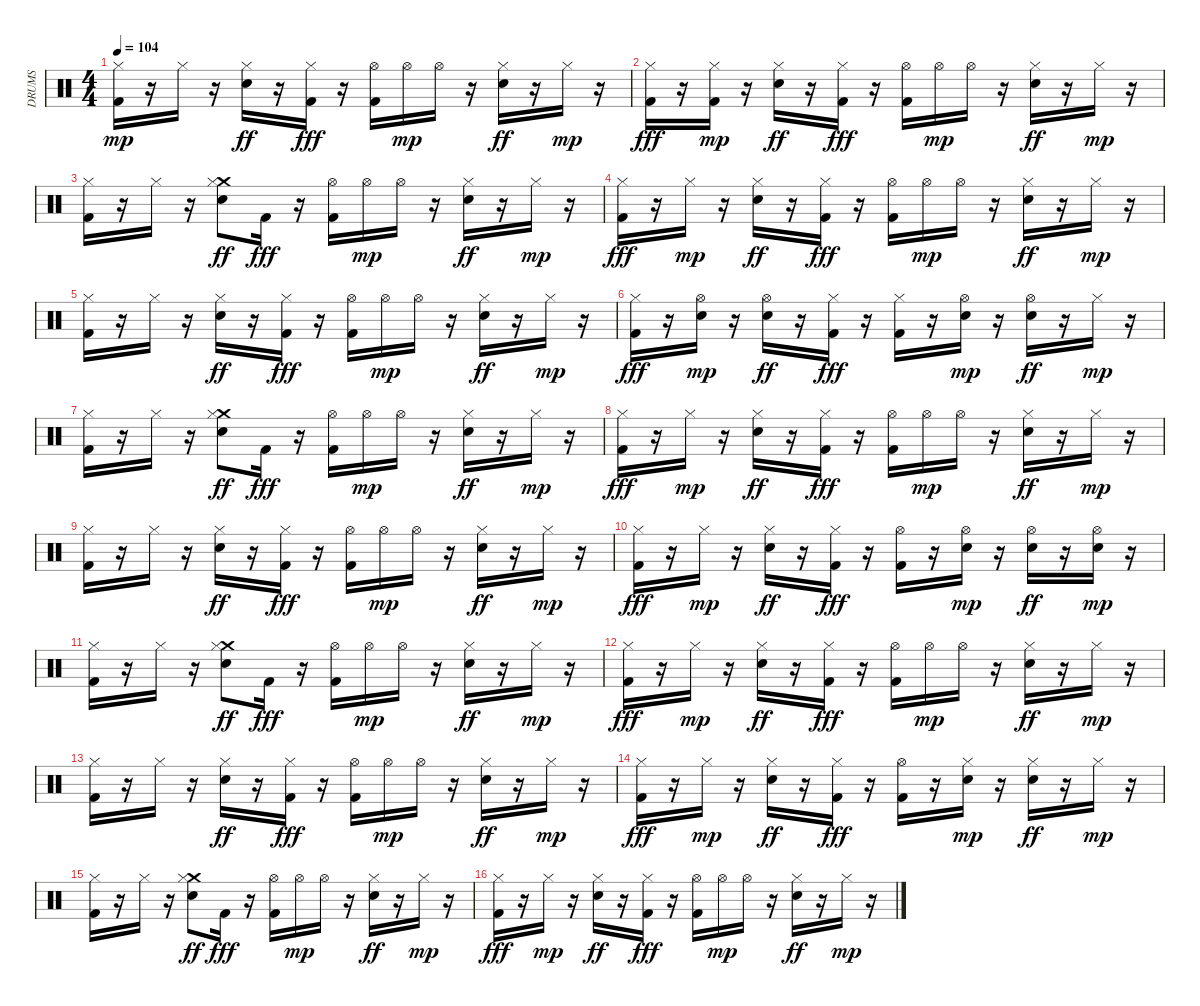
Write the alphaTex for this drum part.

\track ("DRUMS" "DRUMS") {instrument percussion}
\staff {score}
\articulation defaults
\ts (4 4)
\tempo 104
\clef neutral
\ks c
("Kick (hit) 2" "Hi-Hat (closed)").16{dy mp} r.16 "Hi-Hat (closed)".16 r.16 ("Hi-Hat (closed)" "Snare (hit) 2").16{dy ff} r.16 ("Hi-Hat (closed)" "Kick (hit) 2").16{dy fff} r.16 ("Hi-Hat (open)" "Kick (hit) 2").16 "Hi-Hat (open)".16{dy mp} "Hi-Hat (open)".16 r.16 ("Hi-Hat (closed)" "Snare (hit) 2").16{dy ff} r.16 "Hi-Hat (closed)".16{dy mp} r.16 |
("Hi-Hat (closed)" "Kick (hit) 2").16{dy fff} r.16 ("Kick (hit) 2" "Hi-Hat (closed)").16{dy mp} r.16 ("Hi-Hat (closed)" "Snare (hit) 2").16{dy ff} r.16 ("Hi-Hat (closed)" "Kick (hit) 2").16{dy fff} r.16 ("Hi-Hat (open)" "Kick (hit) 2").16 "Hi-Hat (open)".16{dy mp} "Hi-Hat (open)".16 r.16 ("Hi-Hat (closed)" "Snare (hit) 2").16{dy ff} r.16 "Hi-Hat (closed)".16{dy mp} r.16 |
("Kick (hit) 2" "Hi-Hat (closed)").16 r.16 "Hi-Hat (closed)".16 r.16 ("Crash medium (hit)" "Hi-Hat (closed)" "Snare (hit) 2").8{dy ff} "Kick (hit) 2".16{dy fff} r.16 ("Hi-Hat (open)" "Kick (hit) 2").16 "Hi-Hat (open)".16{dy mp} "Hi-Hat (open)".16 r.16 ("Hi-Hat (closed)" "Snare (hit) 2").16{dy ff} r.16 "Hi-Hat (closed)".16{dy mp} r.16 |
("Hi-Hat (closed)" "Kick (hit) 2").16{dy fff} r.16 "Hi-Hat (closed)".16{dy mp} r.16 ("Hi-Hat (closed)" "Snare (hit) 2").16{dy ff} r.16 ("Hi-Hat (closed)" "Kick (hit) 2").16{dy fff} r.16 ("Hi-Hat (open)" "Kick (hit) 2").16 "Hi-Hat (open)".16{dy mp} "Hi-Hat (open)".16 r.16 ("Hi-Hat (closed)" "Snare (hit) 2").16{dy ff} r.16 "Hi-Hat (closed)".16{dy mp} r.16 |
("Kick (hit) 2" "Hi-Hat (closed)").16 r.16 "Hi-Hat (closed)".16 r.16 ("Hi-Hat (closed)" "Snare (hit) 2").16{dy ff} r.16 ("Hi-Hat (closed)" "Kick (hit) 2").16{dy fff} r.16 ("Hi-Hat (open)" "Kick (hit) 2").16 "Hi-Hat (open)".16{dy mp} "Hi-Hat (open)".16 r.16 ("Hi-Hat (closed)" "Snare (hit) 2").16{dy ff} r.16 "Hi-Hat (closed)".16{dy mp} r.16 |
("Hi-Hat (closed)" "Kick (hit) 2").16{dy fff} r.16 ("Snare (hit) 2" "Hi-Hat (open)").16{dy mp} r.16 ("Hi-Hat (open)" "Snare (hit) 2").16{dy ff} r.16 ("Hi-Hat (closed)" "Kick (hit) 2").16{dy fff} r.16 ("Hi-Hat (closed)" "Kick (hit) 2").16 r.16 ("Snare (hit) 2" "Hi-Hat (open)").16{dy mp} r.16 ("Hi-Hat (open)" "Snare (hit) 2").16{dy ff} r.16 "Hi-Hat (closed)".16{dy mp} r.16 |
("Kick (hit) 2" "Hi-Hat (closed)").16 r.16 "Hi-Hat (closed)".16 r.16 ("Crash medium (hit)" "Hi-Hat (closed)" "Snare (hit) 2").8{dy ff} "Kick (hit) 2".16{dy fff} r.16 ("Hi-Hat (open)" "Kick (hit) 2").16 "Hi-Hat (open)".16{dy mp} "Hi-Hat (open)".16 r.16 ("Hi-Hat (closed)" "Snare (hit) 2").16{dy ff} r.16 "Hi-Hat (closed)".16{dy mp} r.16 |
("Hi-Hat (closed)" "Kick (hit) 2").16{dy fff} r.16 "Hi-Hat (closed)".16{dy mp} r.16 ("Hi-Hat (closed)" "Snare (hit) 2").16{dy ff} r.16 ("Hi-Hat (closed)" "Kick (hit) 2").16{dy fff} r.16 ("Hi-Hat (open)" "Kick (hit) 2").16 "Hi-Hat (open)".16{dy mp} "Hi-Hat (open)".16 r.16 ("Hi-Hat (closed)" "Snare (hit) 2").16{dy ff} r.16 "Hi-Hat (closed)".16{dy mp} r.16 |
("Kick (hit) 2" "Hi-Hat (closed)").16 r.16 "Hi-Hat (closed)".16 r.16 ("Hi-Hat (closed)" "Snare (hit) 2").16{dy ff} r.16 ("Hi-Hat (closed)" "Kick (hit) 2").16{dy fff} r.16 ("Hi-Hat (open)" "Kick (hit) 2").16 "Hi-Hat (open)".16{dy mp} "Hi-Hat (open)".16 r.16 ("Hi-Hat (closed)" "Snare (hit) 2").16{dy ff} r.16 "Hi-Hat (closed)".16{dy mp} r.16 |
("Hi-Hat (closed)" "Kick (hit) 2").16{dy fff} r.16 "Hi-Hat (closed)".16{dy mp} r.16 ("Hi-Hat (closed)" "Snare (hit) 2").16{dy ff} r.16 ("Hi-Hat (closed)" "Kick (hit) 2").16{dy fff} r.16 ("Hi-Hat (open)" "Kick (hit) 2").16 r.16 ("Snare (hit) 2" "Hi-Hat (open)").16{dy mp} r.16 ("Hi-Hat (open)" "Snare (hit) 2").16{dy ff} r.16 ("Snare (hit) 2" "Hi-Hat (open)").16{dy mp} r.16 |
("Kick (hit) 2" "Hi-Hat (closed)").16 r.16 "Hi-Hat (closed)".16 r.16 ("Crash medium (hit)" "Hi-Hat (closed)" "Snare (hit) 2").8{dy ff} "Kick (hit) 2".16{dy fff} r.16 ("Hi-Hat (open)" "Kick (hit) 2").16 "Hi-Hat (open)".16{dy mp} "Hi-Hat (open)".16 r.16 ("Hi-Hat (closed)" "Snare (hit) 2").16{dy ff} r.16 "Hi-Hat (closed)".16{dy mp} r.16 |
("Hi-Hat (closed)" "Kick (hit) 2").16{dy fff} r.16 "Hi-Hat (closed)".16{dy mp} r.16 ("Hi-Hat (closed)" "Snare (hit) 2").16{dy ff} r.16 ("Hi-Hat (closed)" "Kick (hit) 2").16{dy fff} r.16 ("Hi-Hat (open)" "Kick (hit) 2").16 "Hi-Hat (open)".16{dy mp} "Hi-Hat (open)".16 r.16 ("Hi-Hat (closed)" "Snare (hit) 2").16{dy ff} r.16 "Hi-Hat (closed)".16{dy mp} r.16 |
("Kick (hit) 2" "Hi-Hat (closed)").16 r.16 "Hi-Hat (closed)".16 r.16 ("Hi-Hat (closed)" "Snare (hit) 2").16{dy ff} r.16 ("Hi-Hat (closed)" "Kick (hit) 2").16{dy fff} r.16 ("Hi-Hat (open)" "Kick (hit) 2").16 "Hi-Hat (open)".16{dy mp} "Hi-Hat (open)".16 r.16 ("Hi-Hat (closed)" "Snare (hit) 2").16{dy ff} r.16 "Hi-Hat (closed)".16{dy mp} r.16 |
("Hi-Hat (closed)" "Kick (hit) 2").16{dy fff} r.16 "Hi-Hat (closed)".16{dy mp} r.16 ("Hi-Hat (closed)" "Snare (hit) 2").16{dy ff} r.16 ("Hi-Hat (closed)" "Kick (hit) 2").16{dy fff} r.16 ("Hi-Hat (open)" "Kick (hit) 2").16 r.16 ("Snare (hit) 2" "Hi-Hat (closed)").16{dy mp} r.16 ("Hi-Hat (closed)" "Snare (hit) 2").16{dy ff} r.16 "Hi-Hat (closed)".16{dy mp} r.16 |
("Kick (hit) 2" "Hi-Hat (closed)").16 r.16 "Hi-Hat (closed)".16 r.16 ("Crash medium (hit)" "Hi-Hat (closed)" "Snare (hit) 2").8{dy ff} "Kick (hit) 2".16{dy fff} r.16 ("Hi-Hat (open)" "Kick (hit) 2").16 "Hi-Hat (open)".16{dy mp} "Hi-Hat (open)".16 r.16 ("Hi-Hat (closed)" "Snare (hit) 2").16{dy ff} r.16 "Hi-Hat (closed)".16{dy mp} r.16 |
("Hi-Hat (closed)" "Kick (hit) 2").16{dy fff} r.16 "Hi-Hat (closed)".16{dy mp} r.16 ("Hi-Hat (closed)" "Snare (hit) 2").16{dy ff} r.16 ("Hi-Hat (closed)" "Kick (hit) 2").16{dy fff} r.16 ("Hi-Hat (open)" "Kick (hit) 2").16 "Hi-Hat (open)".16{dy mp} "Hi-Hat (open)".16 r.16 ("Hi-Hat (closed)" "Snare (hit) 2").16{dy ff} r.16 "Hi-Hat (closed)".16{dy mp} r.16
